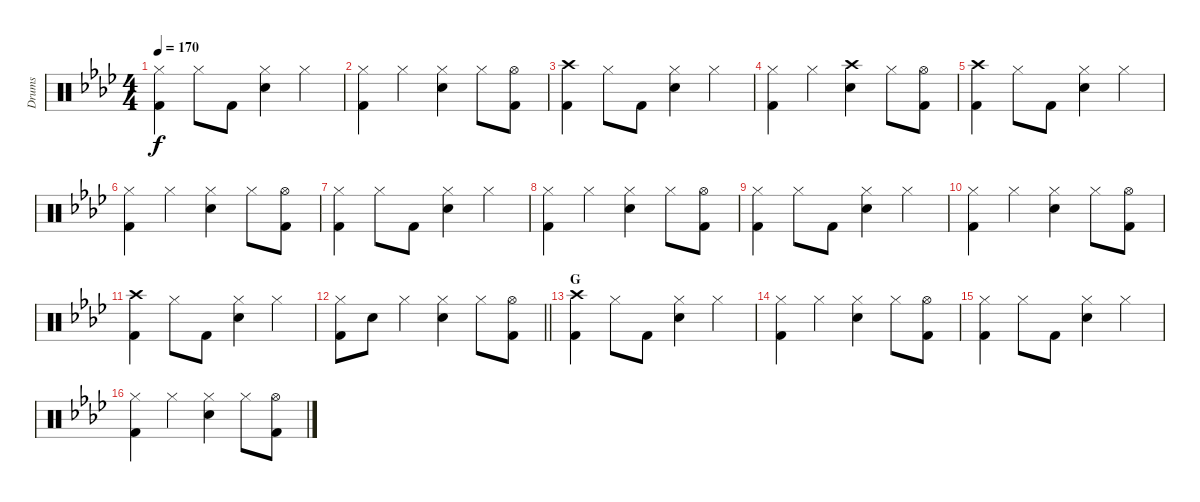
\track ("Drums" "Drums") {instrument percussion}
\staff {score}
\articulation defaults
\ts (4 4)
\tempo 170
\clef neutral
\ks ab
("Hi-Hat (closed)" "Kick (hit) 2").4{dy f} "Hi-Hat (closed)".8 "Kick (hit) 2".8 ("Hi-Hat (closed)" "Snare (hit) 2").4 "Hi-Hat (closed)".4 |
("Hi-Hat (closed)" "Kick (hit) 2").4 "Hi-Hat (closed)".4 ("Hi-Hat (closed)" "Snare (hit) 2").4 "Hi-Hat (closed)".8 ("Hi-Hat (open)" "Kick (hit) 2").8 |
("Crash high (hit)" "Kick (hit) 2").4 "Hi-Hat (closed)".8 "Kick (hit) 2".8 ("Hi-Hat (closed)" "Snare (hit) 2").4 "Hi-Hat (closed)".4 |
("Hi-Hat (closed)" "Kick (hit) 2").4 "Hi-Hat (closed)".4 ("Crash high (hit)" "Snare (hit) 2").4 "Hi-Hat (closed)".8 ("Hi-Hat (open)" "Kick (hit) 2").8 |
("Crash high (hit)" "Kick (hit) 2").4 "Hi-Hat (closed)".8 "Kick (hit) 2".8 ("Hi-Hat (closed)" "Snare (hit) 2").4 "Hi-Hat (closed)".4 |
("Hi-Hat (closed)" "Kick (hit) 2").4 "Hi-Hat (closed)".4 ("Hi-Hat (closed)" "Snare (hit) 2").4 "Hi-Hat (closed)".8 ("Hi-Hat (open)" "Kick (hit) 2").8 |
("Hi-Hat (closed)" "Kick (hit) 2").4 "Hi-Hat (closed)".8 "Kick (hit) 2".8 ("Hi-Hat (closed)" "Snare (hit) 2").4 "Hi-Hat (closed)".4 |
("Hi-Hat (closed)" "Kick (hit) 2").4 "Hi-Hat (closed)".4 ("Hi-Hat (closed)" "Snare (hit) 2").4 "Hi-Hat (closed)".8 ("Hi-Hat (open)" "Kick (hit) 2").8 |
("Hi-Hat (closed)" "Kick (hit) 2").4 "Hi-Hat (closed)".8 "Kick (hit) 2".8 ("Hi-Hat (closed)" "Snare (hit) 2").4 "Hi-Hat (closed)".4 |
("Hi-Hat (closed)" "Kick (hit) 2").4 "Hi-Hat (closed)".4 ("Hi-Hat (closed)" "Snare (hit) 2").4 "Hi-Hat (closed)".8 ("Hi-Hat (open)" "Kick (hit) 2").8 |
("Crash high (hit)" "Kick (hit) 2").4 "Hi-Hat (closed)".8 "Kick (hit) 2".8 ("Hi-Hat (closed)" "Snare (hit) 2").4 "Hi-Hat (closed)".4 |
\barLineRight lightlight
("Hi-Hat (closed)" "Kick (hit) 2").8 "Snare (hit) 2".8 "Hi-Hat (closed)".4 ("Hi-Hat (closed)" "Snare (hit) 2").4 "Hi-Hat (closed)".8 ("Hi-Hat (open)" "Kick (hit) 2").8 |
\section ("" "G")
("Crash high (hit)" "Kick (hit) 2").4 "Hi-Hat (closed)".8 "Kick (hit) 2".8 ("Hi-Hat (closed)" "Snare (hit) 2").4 "Hi-Hat (closed)".4 |
("Hi-Hat (closed)" "Kick (hit) 2").4 "Hi-Hat (closed)".4 ("Hi-Hat (closed)" "Snare (hit) 2").4 "Hi-Hat (closed)".8 ("Hi-Hat (open)" "Kick (hit) 2").8 |
("Hi-Hat (closed)" "Kick (hit) 2").4 "Hi-Hat (closed)".8 "Kick (hit) 2".8 ("Hi-Hat (closed)" "Snare (hit) 2").4 "Hi-Hat (closed)".4 |
("Hi-Hat (closed)" "Kick (hit) 2").4 "Hi-Hat (closed)".4 ("Hi-Hat (closed)" "Snare (hit) 2").4 "Hi-Hat (closed)".8 ("Hi-Hat (open)" "Kick (hit) 2").8
